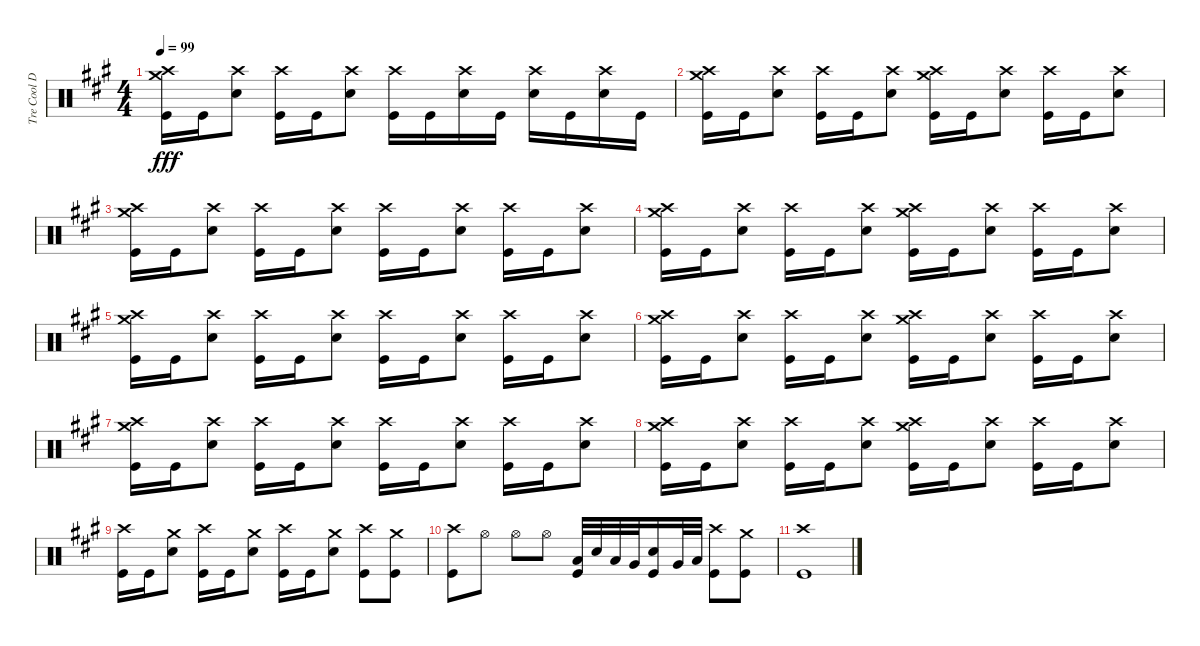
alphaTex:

\track ("Tre Cool Drums" "Tre Cool D") {instrument percussion}
\staff {score}
\articulation defaults
\ts (4 4)
\tempo 99
\clef neutral
\ks a
("Kick (hit)" "Crash high (hit)" "Crash medium (hit)").16{dy fff} "Kick (hit)".16 ("Snare (hit) 2" "Crash high (hit)").8 ("Kick (hit)" "Crash high (hit)").16 "Kick (hit)".16 ("Snare (hit) 2" "Crash high (hit)").8 ("Kick (hit)" "Crash high (hit)").16 "Kick (hit)".16 ("Snare (hit) 2" "Crash high (hit)").16 "Kick (hit)".16 ("Crash high (hit)" "Snare (hit) 2").16 "Kick (hit)".16 ("Snare (hit) 2" "Crash high (hit)").16 "Kick (hit)".16 |
("Kick (hit)" "Crash high (hit)" "Crash medium (hit)").16 "Kick (hit)".16 ("Snare (hit) 2" "Crash high (hit)").8 ("Kick (hit)" "Crash high (hit)").16 "Kick (hit)".16 ("Snare (hit) 2" "Crash high (hit)").8 ("Kick (hit)" "Crash high (hit)" "Crash medium (hit)").16 "Kick (hit)".16 ("Snare (hit) 2" "Crash high (hit)").8 ("Kick (hit)" "Crash high (hit)").16 "Kick (hit)".16 ("Snare (hit) 2" "Crash high (hit)").8 |
("Kick (hit)" "Crash high (hit)" "Crash medium (hit)").16 "Kick (hit)".16 ("Snare (hit) 2" "Crash high (hit)").8 ("Kick (hit)" "Crash high (hit)").16 "Kick (hit)".16 ("Snare (hit) 2" "Crash high (hit)").8 ("Kick (hit)" "Crash high (hit)").16 "Kick (hit)".16 ("Snare (hit) 2" "Crash high (hit)").8 ("Kick (hit)" "Crash high (hit)").16 "Kick (hit)".16 ("Snare (hit) 2" "Crash high (hit)").8 |
("Kick (hit)" "Crash high (hit)" "Crash medium (hit)").16 "Kick (hit)".16 ("Snare (hit) 2" "Crash high (hit)").8 ("Kick (hit)" "Crash high (hit)").16 "Kick (hit)".16 ("Snare (hit) 2" "Crash high (hit)").8 ("Kick (hit)" "Crash high (hit)" "Crash medium (hit)").16 "Kick (hit)".16 ("Snare (hit) 2" "Crash high (hit)").8 ("Kick (hit)" "Crash high (hit)").16 "Kick (hit)".16 ("Snare (hit) 2" "Crash high (hit)").8 |
("Kick (hit)" "Crash high (hit)" "Crash medium (hit)").16 "Kick (hit)".16 ("Snare (hit) 2" "Crash high (hit)").8 ("Kick (hit)" "Crash high (hit)").16 "Kick (hit)".16 ("Snare (hit) 2" "Crash high (hit)").8 ("Kick (hit)" "Crash high (hit)").16 "Kick (hit)".16 ("Snare (hit) 2" "Crash high (hit)").8 ("Kick (hit)" "Crash high (hit)").16 "Kick (hit)".16 ("Snare (hit) 2" "Crash high (hit)").8 |
("Kick (hit)" "Crash high (hit)" "Crash medium (hit)").16 "Kick (hit)".16 ("Snare (hit) 2" "Crash high (hit)").8 ("Kick (hit)" "Crash high (hit)").16 "Kick (hit)".16 ("Snare (hit) 2" "Crash high (hit)").8 ("Kick (hit)" "Crash high (hit)" "Crash medium (hit)").16 "Kick (hit)".16 ("Snare (hit) 2" "Crash high (hit)").8 ("Kick (hit)" "Crash high (hit)").16 "Kick (hit)".16 ("Snare (hit) 2" "Crash high (hit)").8 |
("Kick (hit)" "Crash high (hit)" "Crash medium (hit)").16 "Kick (hit)".16 ("Snare (hit) 2" "Crash high (hit)").8 ("Kick (hit)" "Crash high (hit)").16 "Kick (hit)".16 ("Snare (hit) 2" "Crash high (hit)").8 ("Kick (hit)" "Crash high (hit)").16 "Kick (hit)".16 ("Snare (hit) 2" "Crash high (hit)").8 ("Kick (hit)" "Crash high (hit)").16 "Kick (hit)".16 ("Snare (hit) 2" "Crash high (hit)").8 |
("Kick (hit)" "Crash high (hit)" "Crash medium (hit)").16 "Kick (hit)".16 ("Snare (hit) 2" "Crash high (hit)").8 ("Kick (hit)" "Crash high (hit)").16 "Kick (hit)".16 ("Snare (hit) 2" "Crash high (hit)").8 ("Kick (hit)" "Crash high (hit)" "Crash medium (hit)").16 "Kick (hit)".16 ("Snare (hit) 2" "Crash high (hit)").8 ("Kick (hit)" "Crash high (hit)").16 "Kick (hit)".16 ("Snare (hit) 2" "Crash high (hit)").8 |
("Kick (hit)" "Crash high (hit)").16 "Kick (hit)".16 ("Snare (hit) 2" "Crash medium (hit)").8 ("Kick (hit)" "Crash high (hit)").16 "Kick (hit)".16 ("Snare (hit) 2" "Crash medium (hit)").8 ("Kick (hit)" "Crash high (hit)").16 "Kick (hit)".16 ("Snare (hit) 2" "Crash medium (hit)").8 ("Kick (hit)" "Crash high (hit)").8 ("Kick (hit)" "Crash medium (hit)").8 |
("Kick (hit)" "Crash high (hit)").8 "Hi-Hat (open)".8 "Hi-Hat (open)".8 "Hi-Hat (open)".8 ("Low Floor Tom (hit)" "Kick (hit)").32 "Snare (hit) 2".32 "Low Tom (hit)".32 "Very Low Tom (hit)".32 ("Snare (hit) 2" "Kick (hit)").16 "Very Low Tom (hit)".32 "Low Floor Tom (hit)".32 ("Kick (hit)" "Crash high (hit)").8 ("Kick (hit)" "Crash medium (hit)").8 |
("Kick (hit)" "Crash high (hit)").1
